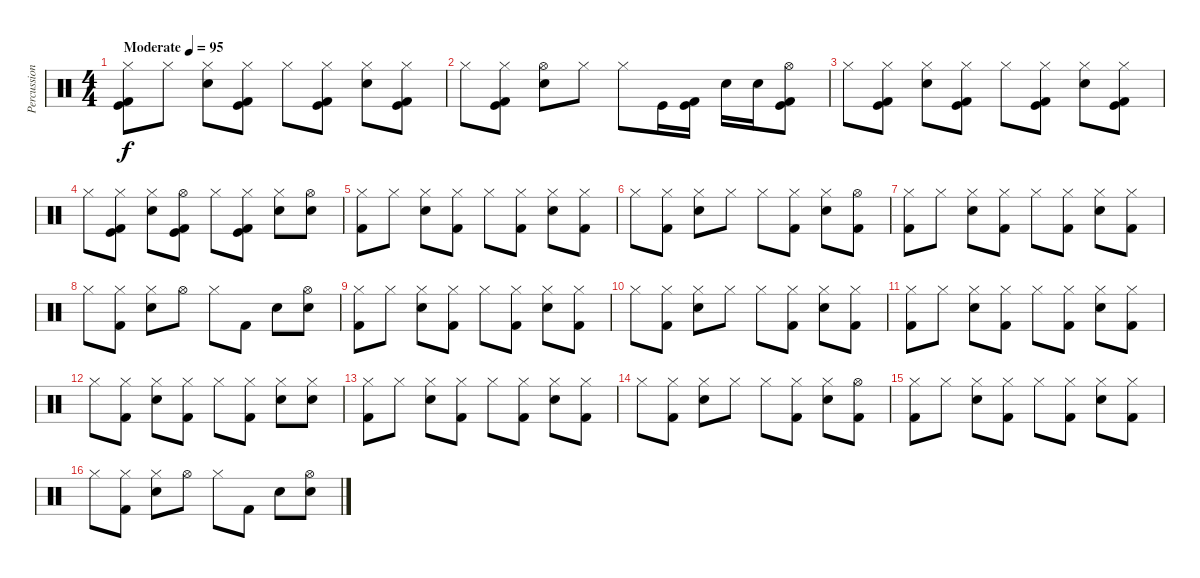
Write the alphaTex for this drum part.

\track ("Percussion" "Percussion") {instrument percussion}
\staff {score}
\articulation defaults
\ts (4 4)
\tempo (95 "Moderate")
\clef neutral
\ks c
("Hi-Hat (closed)" "Kick (hit)" "Kick (hit) 2").8{dy f} "Hi-Hat (closed)".8 ("Hi-Hat (closed)" "Snare (hit) 2").8 ("Hi-Hat (closed)" "Kick (hit)" "Kick (hit) 2").8 "Hi-Hat (closed)".8 ("Hi-Hat (closed)" "Kick (hit)" "Kick (hit) 2").8 ("Hi-Hat (closed)" "Snare (hit) 2").8 ("Hi-Hat (closed)" "Kick (hit)" "Kick (hit) 2").8 |
"Hi-Hat (closed)".8 ("Hi-Hat (closed)" "Kick (hit)" "Kick (hit) 2").8 ("Hi-Hat (open)" "Snare (hit) 2").8 "Hi-Hat (closed)".8 "Hi-Hat (closed)".8 "Kick (hit)".16 ("Kick (hit)" "Kick (hit) 2").16 "Snare (hit) 2".16 "Snare (hit) 2".16 ("Hi-Hat (open)" "Kick (hit)" "Kick (hit) 2").8 |
"Hi-Hat (closed)".8 ("Hi-Hat (closed)" "Kick (hit)" "Kick (hit) 2").8 ("Hi-Hat (closed)" "Snare (hit) 2").8 ("Hi-Hat (closed)" "Kick (hit)" "Kick (hit) 2").8 "Hi-Hat (closed)".8 ("Hi-Hat (closed)" "Kick (hit)" "Kick (hit) 2").8 ("Hi-Hat (closed)" "Snare (hit) 2").8 ("Hi-Hat (closed)" "Kick (hit)" "Kick (hit) 2").8 |
"Hi-Hat (closed)".8 ("Hi-Hat (closed)" "Kick (hit)" "Kick (hit) 2").8 ("Hi-Hat (closed)" "Snare (hit) 2").8 ("Hi-Hat (open)" "Kick (hit)" "Kick (hit) 2").8 "Hi-Hat (closed)".8 ("Hi-Hat (closed)" "Kick (hit)" "Kick (hit) 2").8 ("Hi-Hat (closed)" "Snare (hit) 2").8 ("Hi-Hat (open)" "Snare (hit) 2").8 |
("Hi-Hat (closed)" "Kick (hit) 2").8 "Hi-Hat (closed)".8 ("Hi-Hat (closed)" "Snare (hit) 2").8 ("Hi-Hat (closed)" "Kick (hit) 2").8 "Hi-Hat (closed)".8 ("Hi-Hat (closed)" "Kick (hit) 2").8 ("Hi-Hat (closed)" "Snare (hit) 2").8 ("Hi-Hat (closed)" "Kick (hit) 2").8 |
"Hi-Hat (closed)".8 ("Hi-Hat (closed)" "Kick (hit) 2").8 ("Hi-Hat (closed)" "Snare (hit) 2").8 "Hi-Hat (closed)".8 "Hi-Hat (closed)".8 ("Hi-Hat (closed)" "Kick (hit) 2").8 ("Hi-Hat (closed)" "Snare (hit) 2").8 ("Hi-Hat (open)" "Kick (hit) 2").8 |
("Hi-Hat (closed)" "Kick (hit) 2").8 "Hi-Hat (closed)".8 ("Hi-Hat (closed)" "Snare (hit) 2").8 ("Hi-Hat (closed)" "Kick (hit) 2").8 "Hi-Hat (closed)".8 ("Hi-Hat (closed)" "Kick (hit) 2").8 ("Hi-Hat (closed)" "Snare (hit) 2").8 ("Hi-Hat (closed)" "Kick (hit) 2").8 |
"Hi-Hat (closed)".8 ("Hi-Hat (closed)" "Kick (hit) 2").8 ("Hi-Hat (closed)" "Snare (hit) 2").8 "Hi-Hat (open)".8 "Hi-Hat (closed)".8 "Kick (hit) 2".8 "Snare (hit) 2".8 ("Hi-Hat (open)" "Snare (hit) 2").8 |
("Hi-Hat (closed)" "Kick (hit) 2").8 "Hi-Hat (closed)".8 ("Hi-Hat (closed)" "Snare (hit) 2").8 ("Hi-Hat (closed)" "Kick (hit) 2").8 "Hi-Hat (closed)".8 ("Hi-Hat (closed)" "Kick (hit) 2").8 ("Hi-Hat (closed)" "Snare (hit) 2").8 ("Hi-Hat (closed)" "Kick (hit) 2").8 |
"Hi-Hat (closed)".8 ("Hi-Hat (closed)" "Kick (hit) 2").8 ("Hi-Hat (closed)" "Snare (hit) 2").8 "Hi-Hat (closed)".8 "Hi-Hat (closed)".8 ("Hi-Hat (closed)" "Kick (hit) 2").8 ("Hi-Hat (closed)" "Snare (hit) 2").8 ("Hi-Hat (closed)" "Kick (hit) 2").8 |
("Hi-Hat (closed)" "Kick (hit) 2").8 "Hi-Hat (closed)".8 ("Hi-Hat (closed)" "Snare (hit) 2").8 ("Hi-Hat (closed)" "Kick (hit) 2").8 "Hi-Hat (closed)".8 ("Hi-Hat (closed)" "Kick (hit) 2").8 ("Hi-Hat (closed)" "Snare (hit) 2").8 ("Hi-Hat (closed)" "Kick (hit) 2").8 |
"Hi-Hat (closed)".8 ("Hi-Hat (closed)" "Kick (hit) 2").8 ("Hi-Hat (closed)" "Snare (hit) 2").8 ("Hi-Hat (closed)" "Kick (hit) 2").8 "Hi-Hat (closed)".8 ("Hi-Hat (closed)" "Kick (hit) 2").8 ("Hi-Hat (closed)" "Snare (hit) 2").8 ("Hi-Hat (closed)" "Snare (hit) 2").8 |
("Hi-Hat (closed)" "Kick (hit) 2").8 "Hi-Hat (closed)".8 ("Hi-Hat (closed)" "Snare (hit) 2").8 ("Hi-Hat (closed)" "Kick (hit) 2").8 "Hi-Hat (closed)".8 ("Hi-Hat (closed)" "Kick (hit) 2").8 ("Hi-Hat (closed)" "Snare (hit) 2").8 ("Hi-Hat (closed)" "Kick (hit) 2").8 |
"Hi-Hat (closed)".8 ("Hi-Hat (closed)" "Kick (hit) 2").8 ("Hi-Hat (closed)" "Snare (hit) 2").8 "Hi-Hat (closed)".8 "Hi-Hat (closed)".8 ("Hi-Hat (closed)" "Kick (hit) 2").8 ("Hi-Hat (closed)" "Snare (hit) 2").8 ("Hi-Hat (open)" "Kick (hit) 2").8 |
("Hi-Hat (closed)" "Kick (hit) 2").8 "Hi-Hat (closed)".8 ("Hi-Hat (closed)" "Snare (hit) 2").8 ("Hi-Hat (closed)" "Kick (hit) 2").8 "Hi-Hat (closed)".8 ("Hi-Hat (closed)" "Kick (hit) 2").8 ("Hi-Hat (closed)" "Snare (hit) 2").8 ("Hi-Hat (closed)" "Kick (hit) 2").8 |
"Hi-Hat (closed)".8 ("Hi-Hat (closed)" "Kick (hit) 2").8 ("Hi-Hat (closed)" "Snare (hit) 2").8 "Hi-Hat (open)".8 "Hi-Hat (closed)".8 "Kick (hit) 2".8 "Snare (hit) 2".8 ("Hi-Hat (open)" "Snare (hit) 2").8
